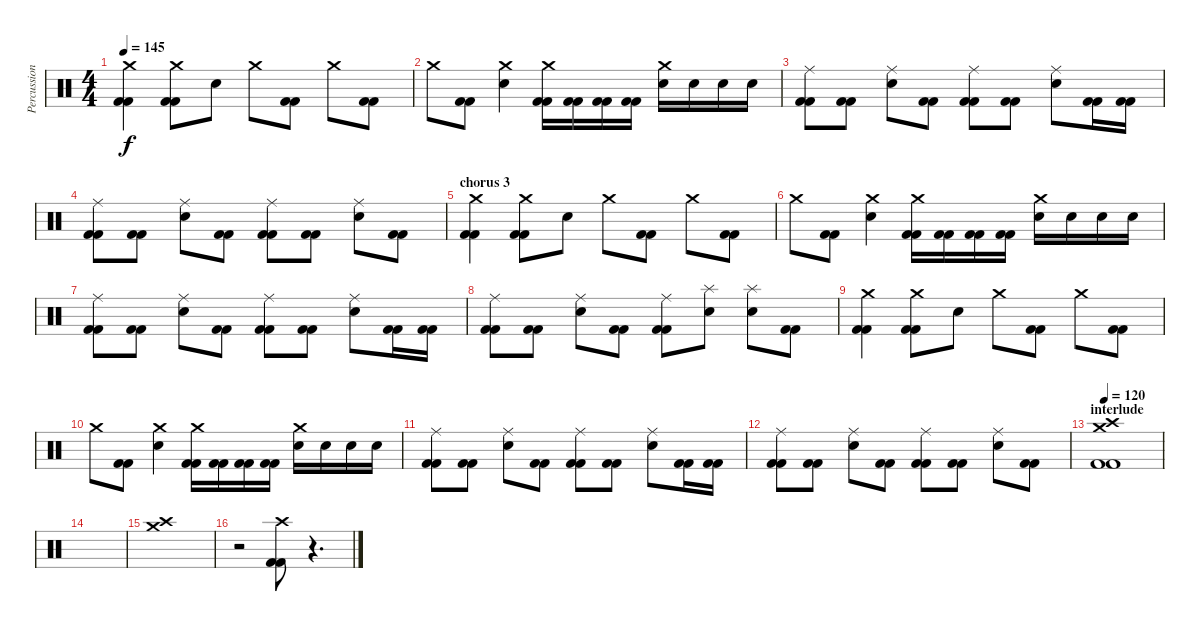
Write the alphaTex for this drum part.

\track ("Percussion" "Percussion") {instrument percussion}
\staff {score}
\articulation defaults
\ts (4 4)
\tempo 145
\clef neutral
\ks c
("Crash medium (hit)" "Kick (hit) 2" "Kick (hit) 2").4{dy f} ("Crash medium (hit)" "Kick (hit) 2" "Kick (hit) 2").8 "Electric Snare (hit)".8 "Crash medium (hit)".8 ("Kick (hit) 2" "Kick (hit) 2").8 "Crash medium (hit)".8 ("Kick (hit) 2" "Kick (hit) 2").8 |
"Crash medium (hit)".8 ("Kick (hit) 2" "Kick (hit) 2").8 ("Crash medium (hit)" "Electric Snare (hit)").4 ("Crash medium (hit)" "Kick (hit) 2" "Kick (hit) 2").16 ("Kick (hit) 2" "Kick (hit) 2").16 ("Kick (hit) 2" "Kick (hit) 2").16 ("Kick (hit) 2" "Kick (hit) 2").16 ("Crash medium (hit)" "Electric Snare (hit)").16 "Electric Snare (hit)".16 "Electric Snare (hit)".16 "Electric Snare (hit)".16 |
("Ride (middle)" "Kick (hit) 2" "Kick (hit) 2").8 ("Kick (hit) 2" "Kick (hit) 2").8 ("Ride (middle)" "Electric Snare (hit)").8 ("Kick (hit) 2" "Kick (hit) 2").8 ("Ride (middle)" "Kick (hit) 2" "Kick (hit) 2").8 ("Kick (hit) 2" "Kick (hit) 2").8 ("Ride (middle)" "Electric Snare (hit)").8 ("Kick (hit) 2" "Kick (hit) 2").16 ("Kick (hit) 2" "Kick (hit) 2").16 |
("Ride (middle)" "Kick (hit) 2" "Kick (hit) 2").8 ("Kick (hit) 2" "Kick (hit) 2").8 ("Ride (middle)" "Electric Snare (hit)").8 ("Kick (hit) 2" "Kick (hit) 2").8 ("Ride (middle)" "Kick (hit) 2" "Kick (hit) 2").8 ("Kick (hit) 2" "Kick (hit) 2").8 ("Ride (middle)" "Electric Snare (hit)").8 ("Kick (hit) 2" "Kick (hit) 2").8 |
\section ("" "chorus 3")
("Crash medium (hit)" "Kick (hit) 2" "Kick (hit) 2").4 ("Crash medium (hit)" "Kick (hit) 2" "Kick (hit) 2").8 "Electric Snare (hit)".8 "Crash medium (hit)".8 ("Kick (hit) 2" "Kick (hit) 2").8 "Crash medium (hit)".8 ("Kick (hit) 2" "Kick (hit) 2").8 |
"Crash medium (hit)".8 ("Kick (hit) 2" "Kick (hit) 2").8 ("Crash medium (hit)" "Electric Snare (hit)").4 ("Crash medium (hit)" "Kick (hit) 2" "Kick (hit) 2").16 ("Kick (hit) 2" "Kick (hit) 2").16 ("Kick (hit) 2" "Kick (hit) 2").16 ("Kick (hit) 2" "Kick (hit) 2").16 ("Crash medium (hit)" "Electric Snare (hit)").16 "Electric Snare (hit)".16 "Electric Snare (hit)".16 "Electric Snare (hit)".16 |
("Ride (middle)" "Kick (hit) 2" "Kick (hit) 2").8 ("Kick (hit) 2" "Kick (hit) 2").8 ("Ride (middle)" "Electric Snare (hit)").8 ("Kick (hit) 2" "Kick (hit) 2").8 ("Ride (middle)" "Kick (hit) 2" "Kick (hit) 2").8 ("Kick (hit) 2" "Kick (hit) 2").8 ("Ride (middle)" "Electric Snare (hit)").8 ("Kick (hit) 2" "Kick (hit) 2").16 ("Kick (hit) 2" "Kick (hit) 2").16 |
("Ride (middle)" "Kick (hit) 2" "Kick (hit) 2").8 ("Kick (hit) 2" "Kick (hit) 2").8 ("Ride (middle)" "Electric Snare (hit)").8 ("Kick (hit) 2" "Kick (hit) 2").8 ("Ride (middle)" "Kick (hit) 2" "Kick (hit) 2").8 ("Splash (hit)" "Electric Snare (hit)").8 ("Splash (hit)" "Electric Snare (hit)").8 ("Kick (hit) 2" "Kick (hit) 2").8 |
("Crash medium (hit)" "Kick (hit) 2" "Kick (hit) 2").4 ("Crash medium (hit)" "Kick (hit) 2" "Kick (hit) 2").8 "Electric Snare (hit)".8 "Crash medium (hit)".8 ("Kick (hit) 2" "Kick (hit) 2").8 "Crash medium (hit)".8 ("Kick (hit) 2" "Kick (hit) 2").8 |
"Crash medium (hit)".8 ("Kick (hit) 2" "Kick (hit) 2").8 ("Crash medium (hit)" "Electric Snare (hit)").4 ("Crash medium (hit)" "Kick (hit) 2" "Kick (hit) 2").16 ("Kick (hit) 2" "Kick (hit) 2").16 ("Kick (hit) 2" "Kick (hit) 2").16 ("Kick (hit) 2" "Kick (hit) 2").16 ("Crash medium (hit)" "Electric Snare (hit)").16 "Electric Snare (hit)".16 "Electric Snare (hit)".16 "Electric Snare (hit)".16 |
("Ride (middle)" "Kick (hit) 2" "Kick (hit) 2").8 ("Kick (hit) 2" "Kick (hit) 2").8 ("Ride (middle)" "Electric Snare (hit)").8 ("Kick (hit) 2" "Kick (hit) 2").8 ("Ride (middle)" "Kick (hit) 2" "Kick (hit) 2").8 ("Kick (hit) 2" "Kick (hit) 2").8 ("Ride (middle)" "Electric Snare (hit)").8 ("Kick (hit) 2" "Kick (hit) 2").16 ("Kick (hit) 2" "Kick (hit) 2").16 |
("Ride (middle)" "Kick (hit) 2" "Kick (hit) 2").8 ("Kick (hit) 2" "Kick (hit) 2").8 ("Ride (middle)" "Electric Snare (hit)").8 ("Kick (hit) 2" "Kick (hit) 2").8 ("Ride (middle)" "Kick (hit) 2" "Kick (hit) 2").8 ("Kick (hit) 2" "Kick (hit) 2").8 ("Ride (middle)" "Electric Snare (hit)").8 ("Kick (hit) 2" "Kick (hit) 2").8 |
\section ("" "interlude")
\tempo 120
("Crash medium (hit)" "Crash high (hit)" "Kick (hit) 2" "Kick (hit) 2").1 |
|
("Crash medium (hit)" "Crash high (hit)").1 |
r.2 ("Crash high (hit)"{pm} "Kick (hit) 2" "Kick (hit) 2").8 r.4{d volume 0}
